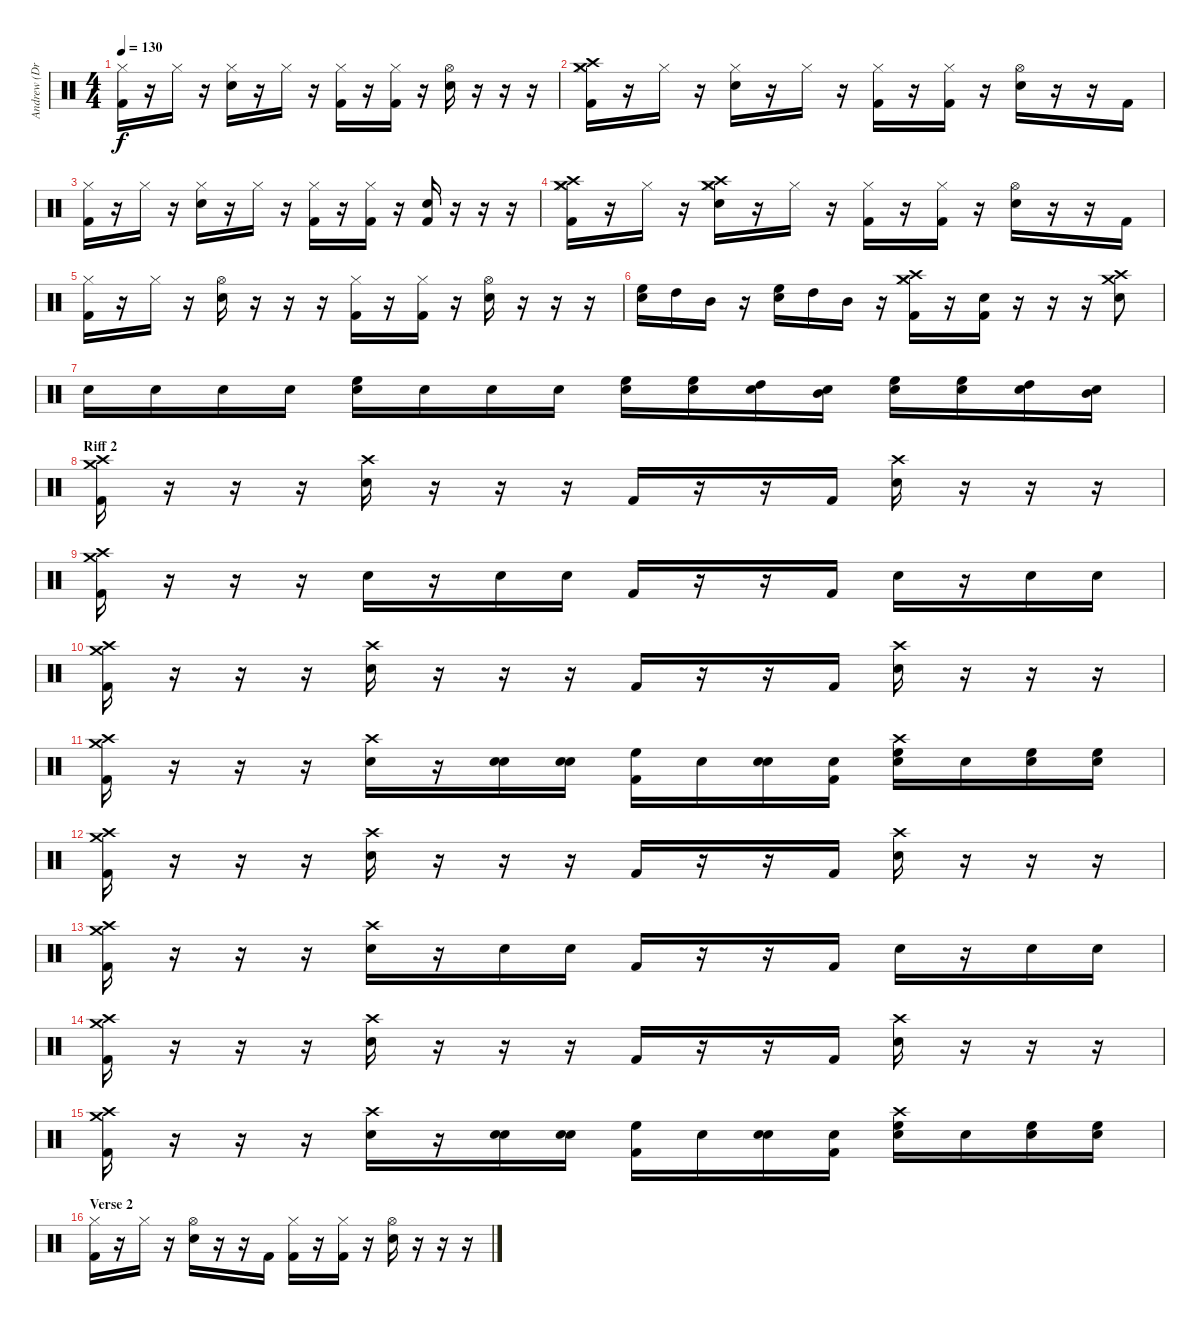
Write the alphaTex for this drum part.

\track ("Andrew (Drums)" "Andrew (Dr") {instrument percussion}
\staff {score}
\articulation defaults
\ts (4 4)
\tempo 130
\clef neutral
\ks c
("Hi-Hat (closed)" "Kick (hit) 2").16{dy f} r.16 "Hi-Hat (closed)".16 r.16 ("Hi-Hat (closed)" "Snare (hit) 2").16 r.16 "Hi-Hat (closed)".16 r.16 ("Hi-Hat (closed)" "Kick (hit) 2").16 r.16 ("Hi-Hat (closed)" "Kick (hit) 2").16 r.16 ("Hi-Hat (open)" "Snare (hit) 2").16 r.16 r.16 r.16 |
("Crash high (hit)" "Crash medium (hit)" "Hi-Hat (closed)" "Kick (hit) 2").16 r.16 "Hi-Hat (closed)".16 r.16 ("Hi-Hat (closed)" "Snare (hit) 2").16 r.16 "Hi-Hat (closed)".16 r.16 ("Hi-Hat (closed)" "Kick (hit) 2").16 r.16 ("Hi-Hat (closed)" "Kick (hit) 2").16 r.16 ("Hi-Hat (open)" "Snare (hit) 2").16 r.16 r.16 "Kick (hit) 2".16 |
("Hi-Hat (closed)" "Kick (hit) 2").16 r.16 "Hi-Hat (closed)".16 r.16 ("Hi-Hat (closed)" "Snare (hit) 2").16 r.16 "Hi-Hat (closed)".16 r.16 ("Hi-Hat (closed)" "Kick (hit) 2").16 r.16 ("Hi-Hat (closed)" "Kick (hit) 2").16 r.16 ("Snare (hit) 2" "Kick (hit) 2").16 r.16 r.16 r.16 |
("Crash high (hit)" "Crash medium (hit)" "Hi-Hat (closed)" "Kick (hit) 2").16 r.16 "Hi-Hat (closed)".16 r.16 ("Crash high (hit)" "Crash medium (hit)" "Hi-Hat (closed)" "Snare (hit) 2").16 r.16 "Hi-Hat (closed)".16 r.16 ("Hi-Hat (closed)" "Kick (hit) 2").16 r.16 ("Hi-Hat (closed)" "Kick (hit) 2").16 r.16 ("Hi-Hat (open)" "Snare (hit) 2").16 r.16 r.16 "Kick (hit) 2".16 |
("Hi-Hat (closed)" "Kick (hit) 2").16 r.16 "Hi-Hat (closed)".16 r.16 ("Hi-Hat (open)" "Snare (hit) 2").16 r.16 r.16 r.16 ("Hi-Hat (closed)" "Kick (hit) 2").16 r.16 ("Hi-Hat (closed)" "Kick (hit) 2").16 r.16 ("Hi-Hat (open)" "Snare (hit) 2").16 r.16 r.16 r.16 |
("High Floor Tom (hit)" "Snare (hit) 2").16 "High Tom (hit)".16 "Mid Tom (hit)".16 r.16 ("High Floor Tom (hit)" "Snare (hit) 2").16 "High Tom (hit)".16 "Mid Tom (hit)".16 r.16 ("Crash high (hit)" "Crash medium (hit)" "Hi-Hat (closed)" "Kick (hit) 2").16 r.16 ("Kick (hit) 2" "Snare (hit) 2").16 r.16 r.16 r.16 ("Crash medium (hit)" "Crash high (hit)" "Snare (hit) 2").8 |
"Snare (hit) 2".16 "Snare (hit) 2".16 "Snare (hit) 2".16 "Snare (hit) 2".16 ("High Floor Tom (hit)" "Snare (hit) 2").16 "Snare (hit) 2".16 "Snare (hit) 2".16 "Snare (hit) 2".16 ("High Floor Tom (hit)" "Snare (hit) 2").16 ("High Floor Tom (hit)" "Snare (hit) 2").16 ("High Tom (hit)" "Snare (hit) 2").16 ("Mid Tom (hit)" "Snare (hit) 2").16 ("High Floor Tom (hit)" "Snare (hit) 2").16 ("High Floor Tom (hit)" "Snare (hit) 2").16 ("High Tom (hit)" "Snare (hit) 2").16 ("Mid Tom (hit)" "Snare (hit) 2").16 |
\section ("" "Riff 2")
("Crash medium (hit)" "Crash high (hit)" "Kick (hit) 2").16 r.16 r.16 r.16 ("Crash high (hit)" "Snare (hit) 2").16 r.16 r.16 r.16 "Kick (hit) 2".16 r.16 r.16 "Kick (hit) 2".16 ("Crash high (hit)" "Snare (hit) 2").16 r.16 r.16 r.16 |
("Crash medium (hit)" "Crash high (hit)" "Kick (hit) 2").16 r.16 r.16 r.16 "Snare (hit) 2".16 r.16 "Snare (hit) 2".16 "Snare (hit) 2".16 "Kick (hit) 2".16 r.16 r.16 "Kick (hit) 2".16 "Snare (hit) 2".16 r.16 "Snare (hit) 2".16 "Snare (hit) 2".16 |
("Crash medium (hit)" "Crash high (hit)" "Kick (hit) 2").16 r.16 r.16 r.16 ("Crash high (hit)" "Snare (hit) 2").16 r.16 r.16 r.16 "Kick (hit) 2".16 r.16 r.16 "Kick (hit) 2".16 ("Crash high (hit)" "Snare (hit) 2").16 r.16 r.16 r.16 |
("Crash medium (hit)" "Crash high (hit)" "Kick (hit) 2").16 r.16 r.16 r.16 ("Crash high (hit)" "Snare (hit) 2").16 r.16 ("Snare (hit) 2" "Snare (hit) 2").16 ("Snare (hit) 2" "Snare (hit) 2").16 ("High Floor Tom (hit)" "Kick (hit) 2").16 "Snare (hit) 2".16 ("Snare (hit) 2" "Snare (hit) 2").16 ("Snare (hit) 2" "Kick (hit) 2").16 ("Crash high (hit)" "High Floor Tom (hit)" "Snare (hit) 2").16 "Snare (hit) 2".16 ("High Floor Tom (hit)" "Snare (hit) 2").16 ("High Floor Tom (hit)" "Snare (hit) 2").16 |
("Crash medium (hit)" "Crash high (hit)" "Kick (hit) 2").16 r.16 r.16 r.16 ("Crash high (hit)" "Snare (hit) 2").16 r.16 r.16 r.16 "Kick (hit) 2".16 r.16 r.16 "Kick (hit) 2".16 ("Crash high (hit)" "Snare (hit) 2").16 r.16 r.16 r.16 |
("Crash medium (hit)" "Crash high (hit)" "Kick (hit) 2").16 r.16 r.16 r.16 ("Crash high (hit)" "Snare (hit) 2").16 r.16 "Snare (hit) 2".16 "Snare (hit) 2".16 "Kick (hit) 2".16 r.16 r.16 "Kick (hit) 2".16 "Snare (hit) 2".16 r.16 "Snare (hit) 2".16 "Snare (hit) 2".16 |
("Crash medium (hit)" "Crash high (hit)" "Kick (hit) 2").16 r.16 r.16 r.16 ("Crash high (hit)" "Snare (hit) 2").16 r.16 r.16 r.16 "Kick (hit) 2".16 r.16 r.16 "Kick (hit) 2".16 ("Crash high (hit)" "Snare (hit) 2").16 r.16 r.16 r.16 |
("Crash medium (hit)" "Crash high (hit)" "Kick (hit) 2").16 r.16 r.16 r.16 ("Crash high (hit)" "Snare (hit) 2").16 r.16 ("Snare (hit) 2" "Snare (hit) 2").16 ("Snare (hit) 2" "Snare (hit) 2").16 ("High Floor Tom (hit)" "Kick (hit) 2").16 "Snare (hit) 2".16 ("Snare (hit) 2" "Snare (hit) 2").16 ("Snare (hit) 2" "Kick (hit) 2").16 ("Crash high (hit)" "High Floor Tom (hit)" "Snare (hit) 2").16 "Snare (hit) 2".16 ("High Floor Tom (hit)" "Snare (hit) 2").16 ("High Floor Tom (hit)" "Snare (hit) 2").16 |
\section ("" "Verse 2")
("Hi-Hat (closed)" "Kick (hit) 2").16 r.16 "Hi-Hat (closed)".16 r.16 ("Hi-Hat (open)" "Snare (hit) 2").16 r.16 r.16 "Kick (hit) 2".16 ("Hi-Hat (closed)" "Kick (hit) 2").16 r.16 ("Hi-Hat (closed)" "Kick (hit) 2").16 r.16 ("Hi-Hat (open)" "Snare (hit) 2").16 r.16 r.16 r.16
